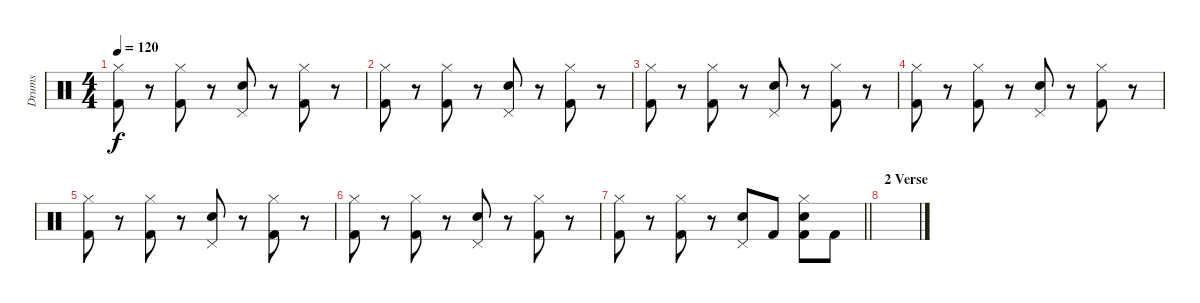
\track ("Drums" "Drums") {instrument percussion}
\staff {score}
\articulation defaults
\ts (4 4)
\tempo 120
\clef neutral
\ks c
("Hi-Hat (closed)" "Kick (hit) 2").8{dy f} r.8 ("Hi-Hat (closed)" "Kick (hit) 2").8 r.8 ("Pedal Hi-Hat (hit)" "Electric Snare (hit)").8 r.8 ("Hi-Hat (closed)" "Kick (hit) 2").8 r.8 |
("Hi-Hat (closed)" "Kick (hit) 2").8 r.8 ("Hi-Hat (closed)" "Kick (hit) 2").8 r.8 ("Pedal Hi-Hat (hit)" "Electric Snare (hit)").8 r.8 ("Hi-Hat (closed)" "Kick (hit) 2").8 r.8 |
("Hi-Hat (closed)" "Kick (hit) 2").8 r.8 ("Hi-Hat (closed)" "Kick (hit) 2").8 r.8 ("Pedal Hi-Hat (hit)" "Electric Snare (hit)").8 r.8 ("Hi-Hat (closed)" "Kick (hit) 2").8 r.8 |
("Hi-Hat (closed)" "Kick (hit) 2").8 r.8 ("Hi-Hat (closed)" "Kick (hit) 2").8 r.8 ("Pedal Hi-Hat (hit)" "Electric Snare (hit)").8 r.8 ("Hi-Hat (closed)" "Kick (hit) 2").8 r.8 |
("Hi-Hat (closed)" "Kick (hit) 2").8 r.8 ("Hi-Hat (closed)" "Kick (hit) 2").8 r.8 ("Pedal Hi-Hat (hit)" "Electric Snare (hit)").8 r.8 ("Hi-Hat (closed)" "Kick (hit) 2").8 r.8 |
("Hi-Hat (closed)" "Kick (hit) 2").8 r.8 ("Hi-Hat (closed)" "Kick (hit) 2").8 r.8 ("Pedal Hi-Hat (hit)" "Electric Snare (hit)").8 r.8 ("Hi-Hat (closed)" "Kick (hit) 2").8 r.8 |
\barLineRight lightlight
("Hi-Hat (closed)" "Kick (hit) 2").8 r.8 ("Hi-Hat (closed)" "Kick (hit) 2").8 r.8 ("Pedal Hi-Hat (hit)" "Electric Snare (hit)").8 "Kick (hit) 2".8 ("Hi-Hat (closed)" "Electric Snare (hit)" "Kick (hit) 2").8 "Kick (hit) 2".8 |
\section ("" "2 Verse")
